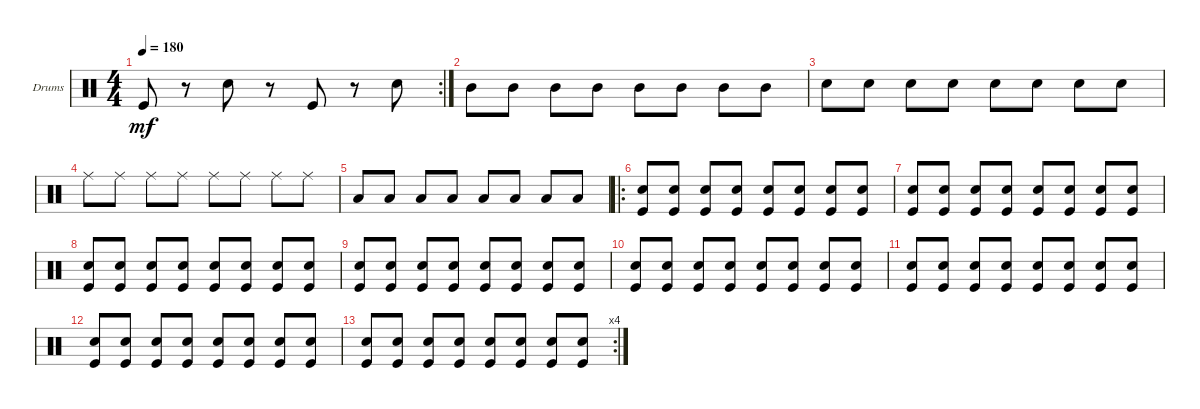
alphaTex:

\defaultSystemsLayout 4
\bracketExtendMode groupsimilarinstruments
\firstSystemTrackNameOrientation horizontal
\otherSystemsTrackNameOrientation horizontal
\track ("Drumkit" "Drums") {instrument percussion}
\staff {score}
\articulation defaults
\rc 2
\ts (4 4)
\tempo 180
\clef neutral
\ks c "Kick (hit)".8{dy mf}
r.8 "Snare (hit) 2".8 r.8 "Kick (hit)".8 r.8 "Snare (hit) 2".8 |
"Mid Tom (hit)".8 "Mid Tom (hit)".8 "Mid Tom (hit)".8 "Mid Tom (hit)".8 "Mid Tom (hit)".8 "Mid Tom (hit)".8 "Mid Tom (hit)".8 "Mid Tom (hit)".8 |
"Snare (hit) 2".8 "Snare (hit) 2".8 "Snare (hit) 2".8 "Snare (hit) 2".8 "Snare (hit) 2".8 "Snare (hit) 2".8 "Snare (hit) 2".8 "Snare (hit) 2".8 |
"Ride (middle)".8 "Ride (middle)".8 "Ride (middle)".8 "Ride (middle)".8 "Ride (middle)".8 "Ride (middle)".8 "Ride (middle)".8 "Ride (middle)".8 |
"Low Tom (hit)".8 "Low Tom (hit)".8 "Low Tom (hit)".8 "Low Tom (hit)".8 "Low Tom (hit)".8 "Low Tom (hit)".8 "Low Tom (hit)".8 "Low Tom (hit)".8 |
\ro
("Snare (hit) 2" "Kick (hit)").8 ("Snare (hit) 2" "Kick (hit)").8 ("Snare (hit) 2" "Kick (hit)").8 ("Snare (hit) 2" "Kick (hit)").8 ("Snare (hit) 2" "Kick (hit)").8 ("Snare (hit) 2" "Kick (hit)").8 ("Snare (hit) 2" "Kick (hit)").8 ("Snare (hit) 2" "Kick (hit)").8 |
("Snare (hit) 2" "Kick (hit)").8 ("Snare (hit) 2" "Kick (hit)").8 ("Snare (hit) 2" "Kick (hit)").8 ("Snare (hit) 2" "Kick (hit)").8 ("Snare (hit) 2" "Kick (hit)").8 ("Snare (hit) 2" "Kick (hit)").8 ("Snare (hit) 2" "Kick (hit)").8 ("Snare (hit) 2" "Kick (hit)").8 |
("Snare (hit) 2" "Kick (hit)").8 ("Snare (hit) 2" "Kick (hit)").8 ("Snare (hit) 2" "Kick (hit)").8 ("Snare (hit) 2" "Kick (hit)").8 ("Snare (hit) 2" "Kick (hit)").8 ("Snare (hit) 2" "Kick (hit)").8 ("Snare (hit) 2" "Kick (hit)").8 ("Snare (hit) 2" "Kick (hit)").8 |
("Snare (hit) 2" "Kick (hit)").8 ("Snare (hit) 2" "Kick (hit)").8 ("Snare (hit) 2" "Kick (hit)").8 ("Snare (hit) 2" "Kick (hit)").8 ("Snare (hit) 2" "Kick (hit)").8 ("Snare (hit) 2" "Kick (hit)").8 ("Snare (hit) 2" "Kick (hit)").8 ("Snare (hit) 2" "Kick (hit)").8 |
("Snare (hit) 2" "Kick (hit)").8 ("Snare (hit) 2" "Kick (hit)").8 ("Snare (hit) 2" "Kick (hit)").8 ("Snare (hit) 2" "Kick (hit)").8 ("Snare (hit) 2" "Kick (hit)").8 ("Snare (hit) 2" "Kick (hit)").8 ("Snare (hit) 2" "Kick (hit)").8 ("Snare (hit) 2" "Kick (hit)").8 |
("Snare (hit) 2" "Kick (hit)").8 ("Snare (hit) 2" "Kick (hit)").8 ("Snare (hit) 2" "Kick (hit)").8 ("Snare (hit) 2" "Kick (hit)").8 ("Snare (hit) 2" "Kick (hit)").8 ("Snare (hit) 2" "Kick (hit)").8 ("Snare (hit) 2" "Kick (hit)").8 ("Snare (hit) 2" "Kick (hit)").8 |
("Snare (hit) 2" "Kick (hit)").8 ("Snare (hit) 2" "Kick (hit)").8 ("Snare (hit) 2" "Kick (hit)").8 ("Snare (hit) 2" "Kick (hit)").8 ("Snare (hit) 2" "Kick (hit)").8 ("Snare (hit) 2" "Kick (hit)").8 ("Snare (hit) 2" "Kick (hit)").8 ("Snare (hit) 2" "Kick (hit)").8 |
\rc 4
("Snare (hit) 2" "Kick (hit)").8 ("Snare (hit) 2" "Kick (hit)").8 ("Snare (hit) 2" "Kick (hit)").8 ("Snare (hit) 2" "Kick (hit)").8 ("Snare (hit) 2" "Kick (hit)").8 ("Snare (hit) 2" "Kick (hit)").8 ("Snare (hit) 2" "Kick (hit)").8 ("Snare (hit) 2" "Kick (hit)").8
